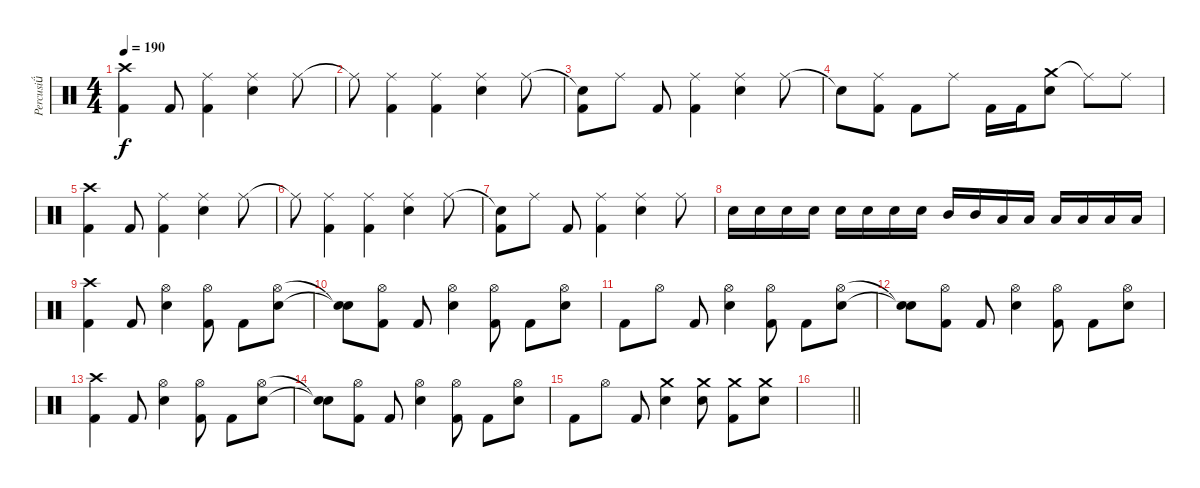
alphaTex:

\track ("Percusi" "Percusi") {instrument percussion}
\staff {score}
\articulation defaults
\ts (4 4)
\section ("" "")
\tempo 190
\clef neutral
\ks c
("Crash high (hit)" "Kick (hit) 2").4{dy f} "Kick (hit) 2".8 ("Ride (middle)" "Kick (hit) 2").4 ("Ride (middle)" "Electric Snare (hit)").4 "Ride (middle)".8 |
"Ride (middle)"{t}.8 ("Ride (middle)" "Kick (hit) 2").4 ("Ride (middle)" "Kick (hit) 2").4 ("Ride (middle)" "Electric Snare (hit)").4 "Ride (middle)".8 |
("Snare (hit)"{t} "Kick (hit) 2").8 "Ride (middle)".8 "Kick (hit) 2".8 ("Ride (middle)" "Kick (hit) 2").4 ("Ride (middle)" "Electric Snare (hit)").4 "Ride (middle)".8 |
"Snare (hit)"{t}.8 ("Ride (middle)" "Kick (hit) 2").8 "Kick (hit) 2".8 "Ride (middle)".8 "Kick (hit) 2".16 "Kick (hit) 2".16 ("Crash medium (hit)" "Electric Snare (hit)").8 "Ride (middle)"{t}.8 "Ride (middle)".8 |
("Crash high (hit)" "Kick (hit) 2").4 "Kick (hit) 2".8 ("Ride (middle)" "Kick (hit) 2").4 ("Ride (middle)" "Electric Snare (hit)").4 "Ride (middle)".8 |
"Ride (middle)"{t}.8 ("Ride (middle)" "Kick (hit) 2").4 ("Ride (middle)" "Kick (hit) 2").4 ("Ride (middle)" "Electric Snare (hit)").4 "Ride (middle)".8 |
("Snare (hit)"{t} "Kick (hit) 2").8 "Ride (middle)".8 "Kick (hit) 2".8 ("Ride (middle)" "Kick (hit) 2").4 ("Ride (middle)" "Electric Snare (hit)").4 "Ride (middle)".8 |
"Electric Snare (hit)".16 "Electric Snare (hit)".16 "Electric Snare (hit)".16 "Electric Snare (hit)".16 "Electric Snare (hit)".16 "Electric Snare (hit)".16 "Electric Snare (hit)".16 "Electric Snare (hit)".16 "Mid Tom (hit)".16 "Mid Tom (hit)".16 "Low Tom (hit)".16 "Low Tom (hit)".16 "Low Floor Tom (hit)".16 "Low Floor Tom (hit)".16 "Low Floor Tom (hit)".16 "Low Floor Tom (hit)".16 |
("Crash high (hit)" "Kick (hit) 2").4 "Kick (hit) 2".8 ("Hi-Hat (open)" "Electric Snare (hit)").4 ("Hi-Hat (open)" "Kick (hit) 2").8 "Kick (hit) 2".8 ("Hi-Hat (open)" "Electric Snare (hit)").8 |
("Snare (hit)"{t} "Snare (hit)"{t}).8 ("Hi-Hat (open)" "Kick (hit) 2").8 "Kick (hit) 2".8 ("Hi-Hat (open)" "Electric Snare (hit)").4 ("Hi-Hat (open)" "Kick (hit) 2").8 "Kick (hit) 2".8 ("Hi-Hat (open)" "Electric Snare (hit)").8 |
"Kick (hit) 2".8 "Hi-Hat (open)".8 "Kick (hit) 2".8 ("Hi-Hat (open)" "Electric Snare (hit)").4 ("Hi-Hat (open)" "Kick (hit) 2").8 "Kick (hit) 2".8 ("Hi-Hat (open)" "Electric Snare (hit)").8 |
("Snare (hit)"{t} "Snare (hit)"{t}).8 ("Hi-Hat (open)" "Kick (hit) 2").8 "Kick (hit) 2".8 ("Hi-Hat (open)" "Electric Snare (hit)").4 ("Hi-Hat (open)" "Kick (hit) 2").8 "Kick (hit) 2".8 ("Hi-Hat (open)" "Electric Snare (hit)").8 |
("Crash high (hit)" "Kick (hit) 2").4 "Kick (hit) 2".8 ("Hi-Hat (open)" "Electric Snare (hit)").4 ("Hi-Hat (open)" "Kick (hit) 2").8 "Kick (hit) 2".8 ("Hi-Hat (open)" "Electric Snare (hit)").8 |
("Snare (hit)"{t} "Snare (hit)"{t}).8 ("Hi-Hat (open)" "Kick (hit) 2").8 "Kick (hit) 2".8 ("Hi-Hat (open)" "Electric Snare (hit)").4 ("Hi-Hat (open)" "Kick (hit) 2").8 "Kick (hit) 2".8 ("Hi-Hat (open)" "Electric Snare (hit)").8 |
"Kick (hit) 2".8 "Hi-Hat (open)".8 "Kick (hit) 2".8 ("Crash medium (hit)" "Electric Snare (hit)").4 ("Crash medium (hit)" "Electric Snare (hit)").8 ("Crash medium (hit)" "Kick (hit) 2").8 ("Crash medium (hit)" "Electric Snare (hit)").8 |
\barLineRight lightlight
